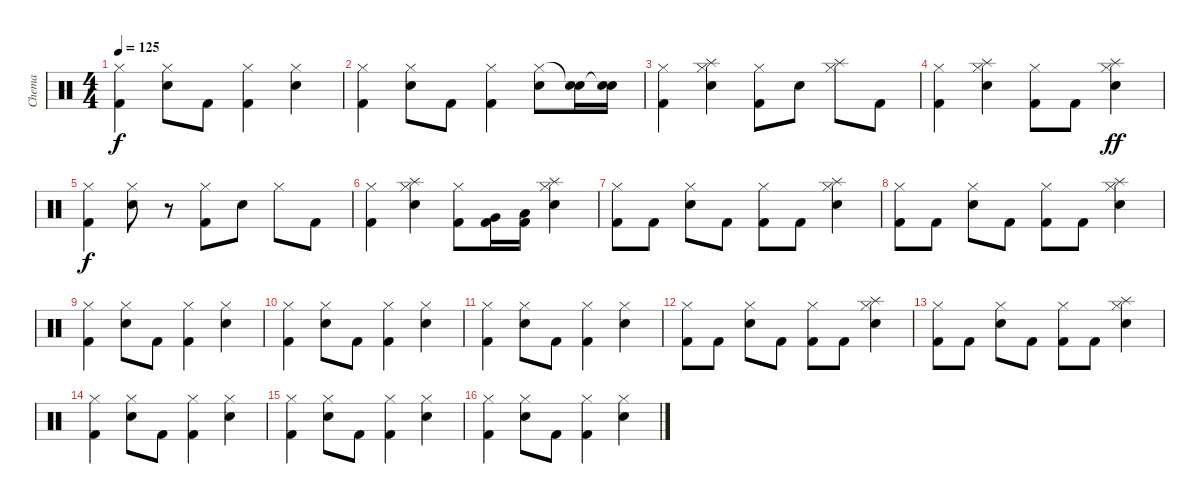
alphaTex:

\track ("Chema" "Chema") {instrument percussion}
\staff {score}
\articulation defaults
\ts (4 4)
\tempo 125
\clef neutral
\ks c
("Hi-Hat (closed)" "Kick (hit) 2").4{dy f} ("Hi-Hat (closed)" "Snare (hit) 2").8 "Kick (hit) 2".8 ("Hi-Hat (closed)" "Kick (hit) 2").4 ("Hi-Hat (closed)" "Snare (hit) 2").4 |
("Hi-Hat (closed)" "Kick (hit) 2").4 ("Hi-Hat (closed)" "Snare (hit) 2").8 "Kick (hit) 2".8 ("Hi-Hat (closed)" "Kick (hit) 2").4 ("Hi-Hat (closed)" "Snare (hit) 2").8 ("Snare (hit)"{t} "Snare (hit) 2").16 ("Snare (hit)"{t} "Snare (hit) 2").16 |
("Hi-Hat (closed)" "Kick (hit) 2").4 ("Hi-Hat (closed)" "Snare (hit) 2" "Splash (hit)").4 ("Hi-Hat (closed)" "Kick (hit) 2").8 "Snare (hit) 2".8 ("Hi-Hat (closed)" "Splash (hit)").8 "Kick (hit) 2".8 |
("Hi-Hat (closed)" "Kick (hit) 2").4 ("Hi-Hat (closed)" "Snare (hit) 2" "Splash (hit)").4 ("Hi-Hat (closed)" "Kick (hit) 2").8 "Kick (hit) 2".8 ("Hi-Hat (closed)" "Snare (hit) 2" "Splash (hit)").4{dy ff} |
("Hi-Hat (closed)" "Kick (hit) 2").4{dy f} ("Hi-Hat (closed)" "Snare (hit) 2").8 r.8 ("Hi-Hat (closed)" "Kick (hit) 2").8 "Snare (hit) 2".8 "Hi-Hat (closed)".8 "Kick (hit) 2".8 |
("Hi-Hat (closed)" "Kick (hit) 2").4 ("Hi-Hat (closed)" "Snare (hit) 2" "Splash (hit)").4 ("Hi-Hat (closed)" "Kick (hit) 2").8 ("Kick (hit) 2" "Very Low Tom (hit)").16 ("Kick (hit) 2" "Low Tom (hit)").16 ("Hi-Hat (closed)" "Snare (hit) 2" "Splash (hit)").4 |
("Hi-Hat (closed)" "Kick (hit) 2").8 "Kick (hit) 2".8 ("Hi-Hat (closed)" "Snare (hit) 2").8 "Kick (hit) 2".8 ("Hi-Hat (closed)" "Kick (hit) 2").8 "Kick (hit) 2".8 ("Hi-Hat (closed)" "Snare (hit) 2" "Splash (hit)").4 |
("Hi-Hat (closed)" "Kick (hit) 2").8 "Kick (hit) 2".8 ("Hi-Hat (closed)" "Snare (hit) 2").8 "Kick (hit) 2".8 ("Hi-Hat (closed)" "Kick (hit) 2").8 "Kick (hit) 2".8 ("Hi-Hat (closed)" "Snare (hit) 2" "Splash (hit)").4 |
("Hi-Hat (closed)" "Kick (hit) 2").4 ("Hi-Hat (closed)" "Snare (hit) 2").8 "Kick (hit) 2".8 ("Hi-Hat (closed)" "Kick (hit) 2").4 ("Hi-Hat (closed)" "Snare (hit) 2").4 |
("Hi-Hat (closed)" "Kick (hit) 2").4 ("Hi-Hat (closed)" "Snare (hit) 2").8 "Kick (hit) 2".8 ("Hi-Hat (closed)" "Kick (hit) 2").4 ("Hi-Hat (closed)" "Snare (hit) 2").4 |
("Hi-Hat (closed)" "Kick (hit) 2").4 ("Hi-Hat (closed)" "Snare (hit) 2").8 "Kick (hit) 2".8 ("Hi-Hat (closed)" "Kick (hit) 2").4 ("Hi-Hat (closed)" "Snare (hit) 2").4 |
("Hi-Hat (closed)" "Kick (hit) 2").8 "Kick (hit) 2".8 ("Hi-Hat (closed)" "Snare (hit) 2").8 "Kick (hit) 2".8 ("Hi-Hat (closed)" "Kick (hit) 2").8 "Kick (hit) 2".8 ("Hi-Hat (closed)" "Snare (hit) 2" "Splash (hit)").4 |
("Hi-Hat (closed)" "Kick (hit) 2").8 "Kick (hit) 2".8 ("Hi-Hat (closed)" "Snare (hit) 2").8 "Kick (hit) 2".8 ("Hi-Hat (closed)" "Kick (hit) 2").8 "Kick (hit) 2".8 ("Hi-Hat (closed)" "Snare (hit) 2" "Splash (hit)").4 |
("Hi-Hat (closed)" "Kick (hit) 2").4 ("Hi-Hat (closed)" "Snare (hit) 2").8 "Kick (hit) 2".8 ("Hi-Hat (closed)" "Kick (hit) 2").4 ("Hi-Hat (closed)" "Snare (hit) 2").4 |
("Hi-Hat (closed)" "Kick (hit) 2").4 ("Hi-Hat (closed)" "Snare (hit) 2").8 "Kick (hit) 2".8 ("Hi-Hat (closed)" "Kick (hit) 2").4 ("Hi-Hat (closed)" "Snare (hit) 2").4 |
("Hi-Hat (closed)" "Kick (hit) 2").4 ("Hi-Hat (closed)" "Snare (hit) 2").8 "Kick (hit) 2".8 ("Hi-Hat (closed)" "Kick (hit) 2").4 ("Hi-Hat (closed)" "Snare (hit) 2").4
